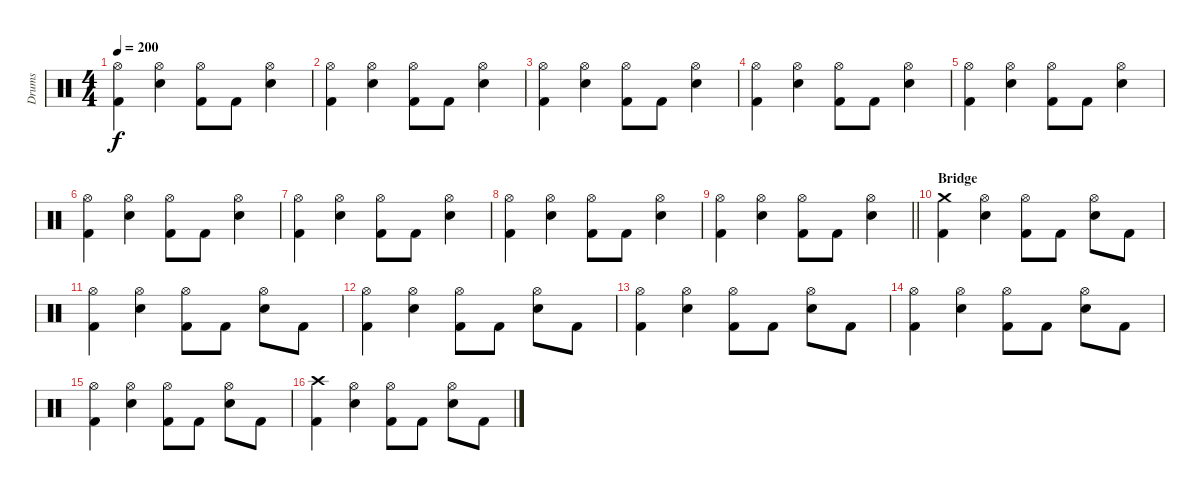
\track ("Drums" "Drums") {instrument percussion}
\staff {score}
\articulation defaults
\ts (4 4)
\tempo 200
\clef neutral
\ks c
("Hi-Hat (open)" "Kick (hit) 2").4{dy f} ("Hi-Hat (open)" "Electric Snare (hit)").4 ("Hi-Hat (open)" "Kick (hit) 2").8 "Kick (hit) 2".8 ("Hi-Hat (open)" "Electric Snare (hit)").4 |
("Hi-Hat (open)" "Kick (hit) 2").4 ("Hi-Hat (open)" "Electric Snare (hit)").4 ("Hi-Hat (open)" "Kick (hit) 2").8 "Kick (hit) 2".8 ("Hi-Hat (open)" "Electric Snare (hit)").4 |
("Hi-Hat (open)" "Kick (hit) 2").4 ("Hi-Hat (open)" "Electric Snare (hit)").4 ("Hi-Hat (open)" "Kick (hit) 2").8 "Kick (hit) 2".8 ("Hi-Hat (open)" "Electric Snare (hit)").4 |
("Hi-Hat (open)" "Kick (hit) 2").4 ("Hi-Hat (open)" "Electric Snare (hit)").4 ("Hi-Hat (open)" "Kick (hit) 2").8 "Kick (hit) 2".8 ("Hi-Hat (open)" "Electric Snare (hit)").4 |
("Hi-Hat (open)" "Kick (hit) 2").4 ("Hi-Hat (open)" "Electric Snare (hit)").4 ("Hi-Hat (open)" "Kick (hit) 2").8 "Kick (hit) 2".8 ("Hi-Hat (open)" "Electric Snare (hit)").4 |
("Hi-Hat (open)" "Kick (hit) 2").4 ("Hi-Hat (open)" "Electric Snare (hit)").4 ("Hi-Hat (open)" "Kick (hit) 2").8 "Kick (hit) 2".8 ("Hi-Hat (open)" "Electric Snare (hit)").4 |
("Hi-Hat (open)" "Kick (hit) 2").4 ("Hi-Hat (open)" "Electric Snare (hit)").4 ("Hi-Hat (open)" "Kick (hit) 2").8 "Kick (hit) 2".8 ("Hi-Hat (open)" "Electric Snare (hit)").4 |
("Hi-Hat (open)" "Kick (hit) 2").4 ("Hi-Hat (open)" "Electric Snare (hit)").4 ("Hi-Hat (open)" "Kick (hit) 2").8 "Kick (hit) 2".8 ("Hi-Hat (open)" "Electric Snare (hit)").4 |
\barLineRight lightlight
("Hi-Hat (open)" "Kick (hit) 2").4 ("Hi-Hat (open)" "Electric Snare (hit)").4 ("Hi-Hat (open)" "Kick (hit) 2").8 "Kick (hit) 2".8 ("Hi-Hat (open)" "Electric Snare (hit)").4 |
\section ("" "Bridge")
("Crash medium (hit)" "Kick (hit) 2").4 ("Hi-Hat (open)" "Electric Snare (hit)").4 ("Hi-Hat (open)" "Kick (hit) 2").8 "Kick (hit) 2".8 ("Hi-Hat (open)" "Electric Snare (hit)").8 "Kick (hit) 2".8 |
("Hi-Hat (open)" "Kick (hit) 2").4 ("Hi-Hat (open)" "Electric Snare (hit)").4 ("Hi-Hat (open)" "Kick (hit) 2").8 "Kick (hit) 2".8 ("Hi-Hat (open)" "Electric Snare (hit)").8 "Kick (hit) 2".8 |
("Hi-Hat (open)" "Kick (hit) 2").4 ("Hi-Hat (open)" "Electric Snare (hit)").4 ("Hi-Hat (open)" "Kick (hit) 2").8 "Kick (hit) 2".8 ("Hi-Hat (open)" "Electric Snare (hit)").8 "Kick (hit) 2".8 |
("Hi-Hat (open)" "Kick (hit) 2").4 ("Hi-Hat (open)" "Electric Snare (hit)").4 ("Hi-Hat (open)" "Kick (hit) 2").8 "Kick (hit) 2".8 ("Hi-Hat (open)" "Electric Snare (hit)").8 "Kick (hit) 2".8 |
("Hi-Hat (open)" "Kick (hit) 2").4 ("Hi-Hat (open)" "Electric Snare (hit)").4 ("Hi-Hat (open)" "Kick (hit) 2").8 "Kick (hit) 2".8 ("Hi-Hat (open)" "Electric Snare (hit)").8 "Kick (hit) 2".8 |
("Hi-Hat (open)" "Kick (hit) 2").4 ("Hi-Hat (open)" "Electric Snare (hit)").4 ("Hi-Hat (open)" "Kick (hit) 2").8 "Kick (hit) 2".8 ("Hi-Hat (open)" "Electric Snare (hit)").8 "Kick (hit) 2".8 |
("Crash high (hit)" "Kick (hit) 2").4 ("Hi-Hat (open)" "Electric Snare (hit)").4 ("Hi-Hat (open)" "Kick (hit) 2").8 "Kick (hit) 2".8 ("Hi-Hat (open)" "Electric Snare (hit)").8 "Kick (hit) 2".8
